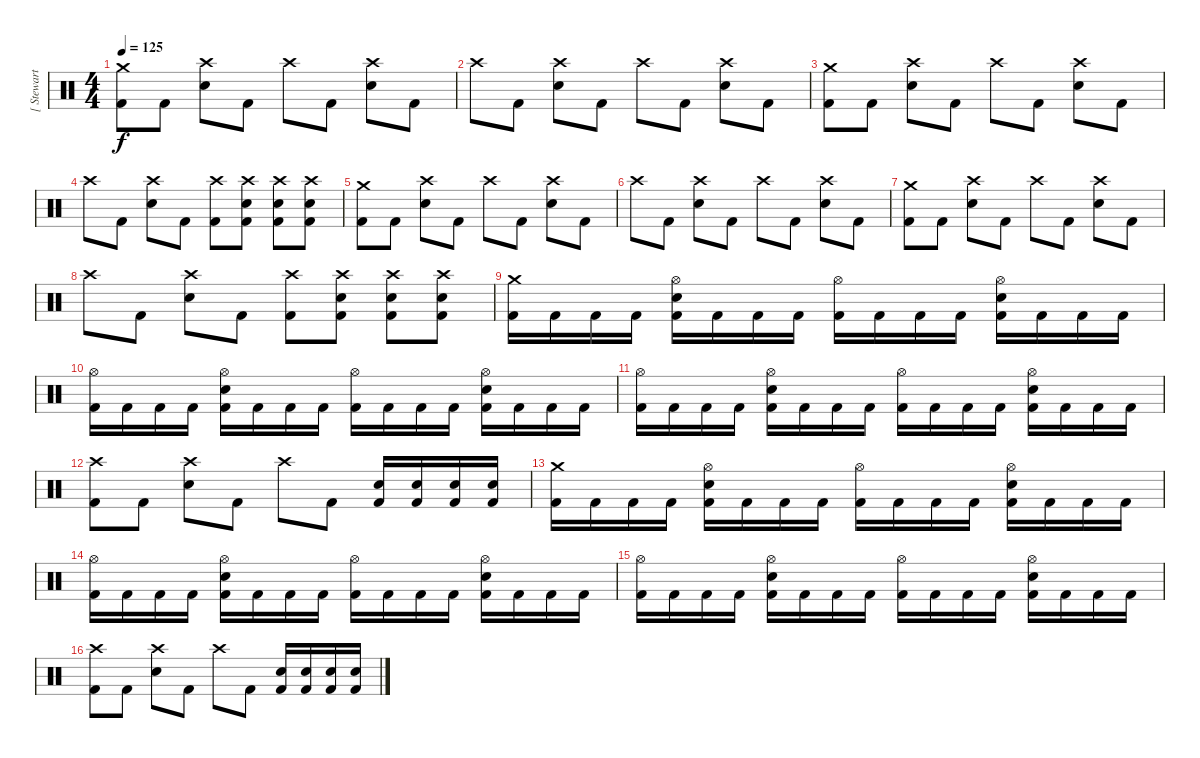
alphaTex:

\track ("[ Stewart ]" "[ Stewart ") {instrument percussion}
\staff {score}
\articulation defaults
\ts (4 4)
\tempo 125
\clef neutral
\ks c
("Kick (hit) 2" "Crash medium (hit)").8{dy f} "Kick (hit) 2".8 ("Electric Snare (hit)" "Crash high (hit)").8 "Kick (hit) 2".8 "Crash high (hit)".8 "Kick (hit) 2".8 ("Electric Snare (hit)" "Crash high (hit)").8 "Kick (hit) 2".8 |
"Crash high (hit)".8 "Kick (hit) 2".8 ("Electric Snare (hit)" "Crash high (hit)").8 "Kick (hit) 2".8 "Crash high (hit)".8 "Kick (hit) 2".8 ("Electric Snare (hit)" "Crash high (hit)").8 "Kick (hit) 2".8 |
("Kick (hit) 2" "Crash medium (hit)").8 "Kick (hit) 2".8 ("Electric Snare (hit)" "Crash high (hit)").8 "Kick (hit) 2".8 "Crash high (hit)".8 "Kick (hit) 2".8 ("Electric Snare (hit)" "Crash high (hit)").8 "Kick (hit) 2".8 |
"Crash high (hit)".8 "Kick (hit) 2".8 ("Electric Snare (hit)" "Crash high (hit)").8 "Kick (hit) 2".8 ("Kick (hit) 2" "Crash high (hit)").8 ("Kick (hit) 2" "Electric Snare (hit)" "Crash high (hit)").8 ("Kick (hit) 2" "Electric Snare (hit)" "Crash high (hit)").8 ("Kick (hit) 2" "Electric Snare (hit)" "Crash high (hit)").8 |
("Kick (hit) 2" "Crash medium (hit)").8 "Kick (hit) 2".8 ("Electric Snare (hit)" "Crash high (hit)").8 "Kick (hit) 2".8 "Crash high (hit)".8 "Kick (hit) 2".8 ("Electric Snare (hit)" "Crash high (hit)").8 "Kick (hit) 2".8 |
"Crash high (hit)".8 "Kick (hit) 2".8 ("Electric Snare (hit)" "Crash high (hit)").8 "Kick (hit) 2".8 "Crash high (hit)".8 "Kick (hit) 2".8 ("Electric Snare (hit)" "Crash high (hit)").8 "Kick (hit) 2".8 |
("Kick (hit) 2" "Crash medium (hit)").8 "Kick (hit) 2".8 ("Electric Snare (hit)" "Crash high (hit)").8 "Kick (hit) 2".8 "Crash high (hit)".8 "Kick (hit) 2".8 ("Electric Snare (hit)" "Crash high (hit)").8 "Kick (hit) 2".8 |
"Crash high (hit)".8 "Kick (hit) 2".8 ("Electric Snare (hit)" "Crash high (hit)").8 "Kick (hit) 2".8 ("Kick (hit) 2" "Crash high (hit)").8 ("Kick (hit) 2" "Electric Snare (hit)" "Crash high (hit)").8 ("Kick (hit) 2" "Electric Snare (hit)" "Crash high (hit)").8 ("Kick (hit) 2" "Electric Snare (hit)" "Crash high (hit)").8 |
("Kick (hit) 2" "Crash medium (hit)").16 "Kick (hit) 2".16 "Kick (hit) 2".16 "Kick (hit) 2".16 ("Kick (hit) 2" "Hi-Hat (open)" "Electric Snare (hit)").16 "Kick (hit) 2".16 "Kick (hit) 2".16 "Kick (hit) 2".16 ("Kick (hit) 2" "Hi-Hat (open)").16 "Kick (hit) 2".16 "Kick (hit) 2".16 "Kick (hit) 2".16 ("Kick (hit) 2" "Hi-Hat (open)" "Electric Snare (hit)").16 "Kick (hit) 2".16 "Kick (hit) 2".16 "Kick (hit) 2".16 |
("Kick (hit) 2" "Hi-Hat (open)").16 "Kick (hit) 2".16 "Kick (hit) 2".16 "Kick (hit) 2".16 ("Kick (hit) 2" "Hi-Hat (open)" "Electric Snare (hit)").16 "Kick (hit) 2".16 "Kick (hit) 2".16 "Kick (hit) 2".16 ("Kick (hit) 2" "Hi-Hat (open)").16 "Kick (hit) 2".16 "Kick (hit) 2".16 "Kick (hit) 2".16 ("Kick (hit) 2" "Hi-Hat (open)" "Electric Snare (hit)").16 "Kick (hit) 2".16 "Kick (hit) 2".16 "Kick (hit) 2".16 |
("Kick (hit) 2" "Hi-Hat (open)").16 "Kick (hit) 2".16 "Kick (hit) 2".16 "Kick (hit) 2".16 ("Kick (hit) 2" "Hi-Hat (open)" "Electric Snare (hit)").16 "Kick (hit) 2".16 "Kick (hit) 2".16 "Kick (hit) 2".16 ("Kick (hit) 2" "Hi-Hat (open)").16 "Kick (hit) 2".16 "Kick (hit) 2".16 "Kick (hit) 2".16 ("Kick (hit) 2" "Hi-Hat (open)" "Electric Snare (hit)").16 "Kick (hit) 2".16 "Kick (hit) 2".16 "Kick (hit) 2".16 |
("Kick (hit) 2" "Crash high (hit)").8 "Kick (hit) 2".8 ("Electric Snare (hit)" "Crash high (hit)").8 "Kick (hit) 2".8 "Crash high (hit)".8 "Kick (hit) 2".8 ("Electric Snare (hit)" "Kick (hit) 2").16 ("Electric Snare (hit)" "Kick (hit) 2").16 ("Electric Snare (hit)" "Kick (hit) 2").16 ("Electric Snare (hit)" "Kick (hit) 2").16 |
("Kick (hit) 2" "Crash medium (hit)").16 "Kick (hit) 2".16 "Kick (hit) 2".16 "Kick (hit) 2".16 ("Kick (hit) 2" "Hi-Hat (open)" "Electric Snare (hit)").16 "Kick (hit) 2".16 "Kick (hit) 2".16 "Kick (hit) 2".16 ("Kick (hit) 2" "Hi-Hat (open)").16 "Kick (hit) 2".16 "Kick (hit) 2".16 "Kick (hit) 2".16 ("Kick (hit) 2" "Hi-Hat (open)" "Electric Snare (hit)").16 "Kick (hit) 2".16 "Kick (hit) 2".16 "Kick (hit) 2".16 |
("Kick (hit) 2" "Hi-Hat (open)").16 "Kick (hit) 2".16 "Kick (hit) 2".16 "Kick (hit) 2".16 ("Kick (hit) 2" "Hi-Hat (open)" "Electric Snare (hit)").16 "Kick (hit) 2".16 "Kick (hit) 2".16 "Kick (hit) 2".16 ("Kick (hit) 2" "Hi-Hat (open)").16 "Kick (hit) 2".16 "Kick (hit) 2".16 "Kick (hit) 2".16 ("Kick (hit) 2" "Hi-Hat (open)" "Electric Snare (hit)").16 "Kick (hit) 2".16 "Kick (hit) 2".16 "Kick (hit) 2".16 |
("Kick (hit) 2" "Hi-Hat (open)").16 "Kick (hit) 2".16 "Kick (hit) 2".16 "Kick (hit) 2".16 ("Kick (hit) 2" "Hi-Hat (open)" "Electric Snare (hit)").16 "Kick (hit) 2".16 "Kick (hit) 2".16 "Kick (hit) 2".16 ("Kick (hit) 2" "Hi-Hat (open)").16 "Kick (hit) 2".16 "Kick (hit) 2".16 "Kick (hit) 2".16 ("Kick (hit) 2" "Hi-Hat (open)" "Electric Snare (hit)").16 "Kick (hit) 2".16 "Kick (hit) 2".16 "Kick (hit) 2".16 |
("Kick (hit) 2" "Crash high (hit)").8 "Kick (hit) 2".8 ("Electric Snare (hit)" "Crash high (hit)").8 "Kick (hit) 2".8 "Crash high (hit)".8 "Kick (hit) 2".8 ("Electric Snare (hit)" "Kick (hit) 2").16 ("Electric Snare (hit)" "Kick (hit) 2").16 ("Electric Snare (hit)" "Kick (hit) 2").16 ("Electric Snare (hit)" "Kick (hit) 2").16
